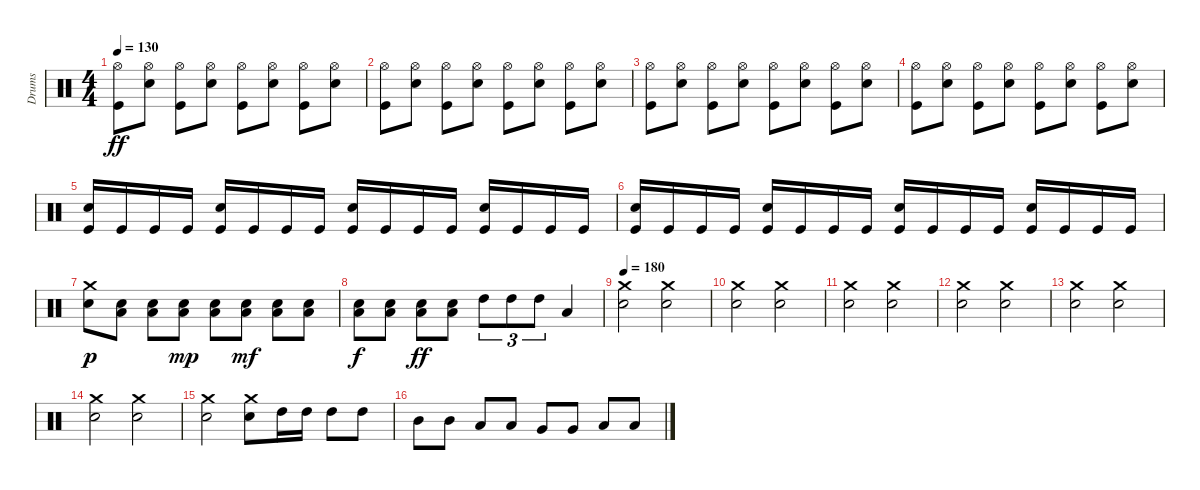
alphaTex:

\track ("Drums" "Drums") {instrument percussion}
\staff {score}
\articulation defaults
\ts (4 4)
\tempo 130
\clef neutral
\ks c
("Hi-Hat (open)" "Kick (hit)").8{dy ff} ("Hi-Hat (open)" "Electric Snare (hit)").8 ("Hi-Hat (open)" "Kick (hit)").8 ("Hi-Hat (open)" "Electric Snare (hit)").8 ("Hi-Hat (open)" "Kick (hit)").8 ("Hi-Hat (open)" "Electric Snare (hit)").8 ("Hi-Hat (open)" "Kick (hit)").8 ("Hi-Hat (open)" "Electric Snare (hit)").8 |
("Hi-Hat (open)" "Kick (hit)").8 ("Hi-Hat (open)" "Electric Snare (hit)").8 ("Hi-Hat (open)" "Kick (hit)").8 ("Hi-Hat (open)" "Electric Snare (hit)").8 ("Hi-Hat (open)" "Kick (hit)").8 ("Hi-Hat (open)" "Electric Snare (hit)").8 ("Hi-Hat (open)" "Kick (hit)").8 ("Hi-Hat (open)" "Electric Snare (hit)").8 |
("Hi-Hat (open)" "Kick (hit)").8 ("Hi-Hat (open)" "Electric Snare (hit)").8 ("Hi-Hat (open)" "Kick (hit)").8 ("Hi-Hat (open)" "Electric Snare (hit)").8 ("Hi-Hat (open)" "Kick (hit)").8 ("Hi-Hat (open)" "Electric Snare (hit)").8 ("Hi-Hat (open)" "Kick (hit)").8 ("Hi-Hat (open)" "Electric Snare (hit)").8 |
("Hi-Hat (open)" "Kick (hit)").8 ("Hi-Hat (open)" "Electric Snare (hit)").8 ("Hi-Hat (open)" "Kick (hit)").8 ("Hi-Hat (open)" "Electric Snare (hit)").8 ("Hi-Hat (open)" "Kick (hit)").8 ("Hi-Hat (open)" "Electric Snare (hit)").8 ("Hi-Hat (open)" "Kick (hit)").8 ("Hi-Hat (open)" "Electric Snare (hit)").8 |
("Electric Snare (hit)" "Kick (hit)").16 "Kick (hit)".16 "Kick (hit)".16 "Kick (hit)".16 ("Electric Snare (hit)" "Kick (hit)").16 "Kick (hit)".16 "Kick (hit)".16 "Kick (hit)".16 ("Electric Snare (hit)" "Kick (hit)").16 "Kick (hit)".16 "Kick (hit)".16 "Kick (hit)".16 ("Electric Snare (hit)" "Kick (hit)").16 "Kick (hit)".16 "Kick (hit)".16 "Kick (hit)".16 |
("Electric Snare (hit)" "Kick (hit)").16 "Kick (hit)".16 "Kick (hit)".16 "Kick (hit)".16 ("Electric Snare (hit)" "Kick (hit)").16 "Kick (hit)".16 "Kick (hit)".16 "Kick (hit)".16 ("Electric Snare (hit)" "Kick (hit)").16 "Kick (hit)".16 "Kick (hit)".16 "Kick (hit)".16 ("Electric Snare (hit)" "Kick (hit)").16 "Kick (hit)".16 "Kick (hit)".16 "Kick (hit)".16 |
("Crash medium (hit)" "Electric Snare (hit)").8{dy p} ("Low Floor Tom (hit)" "Electric Snare (hit)").8 ("Low Floor Tom (hit)" "Electric Snare (hit)").8 ("Low Floor Tom (hit)" "Electric Snare (hit)").8{dy mp} ("Low Floor Tom (hit)" "Electric Snare (hit)").8 ("Low Floor Tom (hit)" "Electric Snare (hit)").8{dy mf} ("Low Floor Tom (hit)" "Electric Snare (hit)").8 ("Low Floor Tom (hit)" "Electric Snare (hit)").8 |
("Low Floor Tom (hit)" "Electric Snare (hit)").8{dy f} ("Low Floor Tom (hit)" "Electric Snare (hit)").8 ("Low Floor Tom (hit)" "Electric Snare (hit)").8{dy ff} ("Low Floor Tom (hit)" "Electric Snare (hit)").8 "High Tom (hit)".8{tu (3 2)} "High Tom (hit)".8{tu (3 2)} "High Tom (hit)".8{tu (3 2)} "Low Tom (hit)".4 |
\tempo 180
("Crash medium (hit)" "Electric Snare (hit)").2 ("Crash medium (hit)" "Electric Snare (hit)").2 |
("Crash medium (hit)" "Electric Snare (hit)").2 ("Crash medium (hit)" "Electric Snare (hit)").2 |
("Crash medium (hit)" "Electric Snare (hit)").2 ("Crash medium (hit)" "Electric Snare (hit)").2 |
("Crash medium (hit)" "Electric Snare (hit)").2 ("Crash medium (hit)" "Electric Snare (hit)").2 |
("Crash medium (hit)" "Electric Snare (hit)").2 ("Crash medium (hit)" "Electric Snare (hit)").2 |
("Crash medium (hit)" "Electric Snare (hit)").2 ("Crash medium (hit)" "Electric Snare (hit)").2 |
("Crash medium (hit)" "Electric Snare (hit)").2 ("Crash medium (hit)" "Electric Snare (hit)").8 "High Tom (hit)".16 "High Tom (hit)".16 "High Tom (hit)".8 "High Tom (hit)".8 |
"Mid Tom (hit)".8 "Mid Tom (hit)".8 "Low Tom (hit)".8 "Low Tom (hit)".8 "Very Low Tom (hit)".8 "Very Low Tom (hit)".8 "Low Floor Tom (hit)".8 "Low Floor Tom (hit)".8
